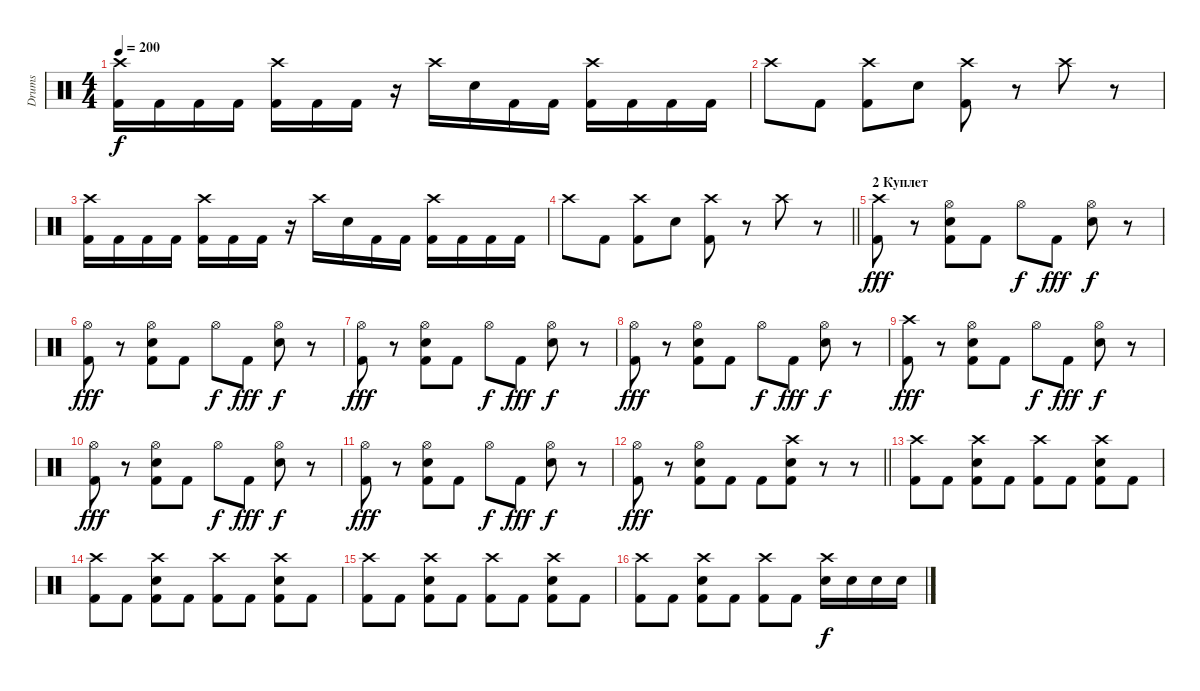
\track ("Drums" "Drums") {instrument percussion}
\staff {score}
\articulation defaults
\ts (4 4)
\tempo 200
\clef neutral
\ks c
("Crash high (hit)" "Kick (hit) 2").16{dy f} "Kick (hit) 2".16 "Kick (hit) 2".16 "Kick (hit) 2".16 ("Crash high (hit)" "Kick (hit) 2").16 "Kick (hit) 2".16 "Kick (hit) 2".16 r.16 "Crash high (hit)".16 "Electric Snare (hit)".16 "Kick (hit) 2".16 "Kick (hit) 2".16 ("Crash high (hit)" "Kick (hit) 2").16 "Kick (hit) 2".16 "Kick (hit) 2".16 "Kick (hit) 2".16 |
"Crash high (hit)".8 "Kick (hit) 2".8 ("Crash high (hit)" "Kick (hit) 2").8 "Electric Snare (hit)".8 ("Crash high (hit)" "Kick (hit) 2").8 r.8 "Crash high (hit)".8 r.8 |
("Crash high (hit)" "Kick (hit) 2").16 "Kick (hit) 2".16 "Kick (hit) 2".16 "Kick (hit) 2".16 ("Crash high (hit)" "Kick (hit) 2").16 "Kick (hit) 2".16 "Kick (hit) 2".16 r.16 "Crash high (hit)".16 "Electric Snare (hit)".16 "Kick (hit) 2".16 "Kick (hit) 2".16 ("Crash high (hit)" "Kick (hit) 2").16 "Kick (hit) 2".16 "Kick (hit) 2".16 "Kick (hit) 2".16 |
\barLineRight lightlight "Crash high (hit)".8 "Kick (hit) 2".8
("Crash high (hit)" "Kick (hit) 2").8 "Electric Snare (hit)".8 ("Crash high (hit)" "Kick (hit) 2").8 r.8 "Crash high (hit)".8 r.8 |
\section ("" "2 Куплет")
("Crash high (hit)" "Kick (hit) 2").8{dy fff} r.8 ("Hi-Hat (open)" "Electric Snare (hit)" "Kick (hit) 2").8 "Kick (hit) 2".8 "Hi-Hat (open)".8{dy f} "Kick (hit) 2".8{dy fff} ("Hi-Hat (open)" "Electric Snare (hit)").8{dy f} r.8 |
("Hi-Hat (open)" "Kick (hit) 2").8{dy fff} r.8 ("Hi-Hat (open)" "Electric Snare (hit)" "Kick (hit) 2").8 "Kick (hit) 2".8 "Hi-Hat (open)".8{dy f} "Kick (hit) 2".8{dy fff} ("Hi-Hat (open)" "Electric Snare (hit)").8{dy f} r.8 |
("Hi-Hat (open)" "Kick (hit) 2").8{dy fff} r.8 ("Hi-Hat (open)" "Electric Snare (hit)" "Kick (hit) 2").8 "Kick (hit) 2".8 "Hi-Hat (open)".8{dy f} "Kick (hit) 2".8{dy fff} ("Hi-Hat (open)" "Electric Snare (hit)").8{dy f} r.8 |
("Hi-Hat (open)" "Kick (hit) 2").8{dy fff} r.8 ("Hi-Hat (open)" "Electric Snare (hit)" "Kick (hit) 2").8 "Kick (hit) 2".8 "Hi-Hat (open)".8{dy f} "Kick (hit) 2".8{dy fff} ("Hi-Hat (open)" "Electric Snare (hit)").8{dy f} r.8 |
("Crash high (hit)" "Kick (hit) 2").8{dy fff} r.8 ("Hi-Hat (open)" "Electric Snare (hit)" "Kick (hit) 2").8 "Kick (hit) 2".8 "Hi-Hat (open)".8{dy f} "Kick (hit) 2".8{dy fff} ("Hi-Hat (open)" "Electric Snare (hit)").8{dy f} r.8 |
("Hi-Hat (open)" "Kick (hit) 2").8{dy fff} r.8 ("Hi-Hat (open)" "Electric Snare (hit)" "Kick (hit) 2").8 "Kick (hit) 2".8 "Hi-Hat (open)".8{dy f} "Kick (hit) 2".8{dy fff} ("Hi-Hat (open)" "Electric Snare (hit)").8{dy f} r.8 |
("Hi-Hat (open)" "Kick (hit) 2").8{dy fff} r.8 ("Hi-Hat (open)" "Electric Snare (hit)" "Kick (hit) 2").8 "Kick (hit) 2".8 "Hi-Hat (open)".8{dy f} "Kick (hit) 2".8{dy fff} ("Hi-Hat (open)" "Electric Snare (hit)").8{dy f} r.8 |
\barLineRight lightlight
("Hi-Hat (open)" "Kick (hit) 2").8{dy fff} r.8 ("Hi-Hat (open)" "Electric Snare (hit)" "Kick (hit) 2").8 "Kick (hit) 2".8 "Kick (hit) 2".8 ("Crash high (hit)" "Electric Snare (hit)" "Kick (hit) 2").8 r.8 r.8 |
\section ("" "")
("Crash high (hit)" "Kick (hit) 2").8 "Kick (hit) 2".8 ("Crash high (hit)" "Electric Snare (hit)" "Kick (hit) 2").8 "Kick (hit) 2".8 ("Crash high (hit)" "Kick (hit) 2").8 "Kick (hit) 2".8 ("Crash high (hit)" "Electric Snare (hit)" "Kick (hit) 2").8 "Kick (hit) 2".8 |
("Crash high (hit)" "Kick (hit) 2").8 "Kick (hit) 2".8 ("Crash high (hit)" "Electric Snare (hit)" "Kick (hit) 2").8 "Kick (hit) 2".8 ("Crash high (hit)" "Kick (hit) 2").8 "Kick (hit) 2".8 ("Crash high (hit)" "Electric Snare (hit)" "Kick (hit) 2").8 "Kick (hit) 2".8 |
("Crash high (hit)" "Kick (hit) 2").8 "Kick (hit) 2".8 ("Crash high (hit)" "Electric Snare (hit)" "Kick (hit) 2").8 "Kick (hit) 2".8 ("Crash high (hit)" "Kick (hit) 2").8 "Kick (hit) 2".8 ("Crash high (hit)" "Electric Snare (hit)" "Kick (hit) 2").8 "Kick (hit) 2".8 |
("Crash high (hit)" "Kick (hit) 2").8 "Kick (hit) 2".8 ("Crash high (hit)" "Electric Snare (hit)" "Kick (hit) 2").8 "Kick (hit) 2".8 ("Crash high (hit)" "Kick (hit) 2").8 "Kick (hit) 2".8 ("Crash high (hit)" "Electric Snare (hit)").16{dy f} "Electric Snare (hit)".16 "Electric Snare (hit)".16 "Electric Snare (hit)".16
